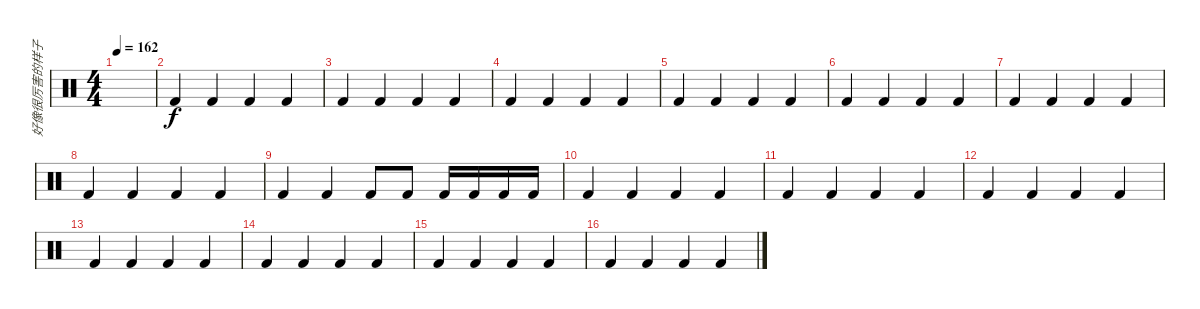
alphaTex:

\track ("好像很厉害的样子" "好像很厉害的样子") {instrument percussion}
\staff {score}
\articulation defaults
\ts (4 4)
\tempo 162
\clef neutral
\ks c
|
"Kick (hit) 2".4 "Kick (hit) 2".4 "Kick (hit) 2".4 "Kick (hit) 2".4 |
"Kick (hit) 2".4 "Kick (hit) 2".4 "Kick (hit) 2".4 "Kick (hit) 2".4 |
"Kick (hit) 2".4 "Kick (hit) 2".4 "Kick (hit) 2".4 "Kick (hit) 2".4 |
"Kick (hit) 2".4 "Kick (hit) 2".4 "Kick (hit) 2".4 "Kick (hit) 2".4 |
"Kick (hit) 2".4 "Kick (hit) 2".4 "Kick (hit) 2".4 "Kick (hit) 2".4 |
"Kick (hit) 2".4 "Kick (hit) 2".4 "Kick (hit) 2".4 "Kick (hit) 2".4 |
"Kick (hit) 2".4 "Kick (hit) 2".4 "Kick (hit) 2".4 "Kick (hit) 2".4 |
"Kick (hit) 2".4 "Kick (hit) 2".4 "Kick (hit) 2".8 "Kick (hit) 2".8 "Kick (hit) 2".16 "Kick (hit) 2".16 "Kick (hit) 2".16 "Kick (hit) 2".16 |
"Kick (hit) 2".4 "Kick (hit) 2".4 "Kick (hit) 2".4 "Kick (hit) 2".4 |
"Kick (hit) 2".4 "Kick (hit) 2".4 "Kick (hit) 2".4 "Kick (hit) 2".4 |
"Kick (hit) 2".4 "Kick (hit) 2".4 "Kick (hit) 2".4 "Kick (hit) 2".4 |
"Kick (hit) 2".4 "Kick (hit) 2".4 "Kick (hit) 2".4 "Kick (hit) 2".4 |
"Kick (hit) 2".4 "Kick (hit) 2".4 "Kick (hit) 2".4 "Kick (hit) 2".4 |
"Kick (hit) 2".4 "Kick (hit) 2".4 "Kick (hit) 2".4 "Kick (hit) 2".4 |
"Kick (hit) 2".4 "Kick (hit) 2".4 "Kick (hit) 2".4 "Kick (hit) 2".4
